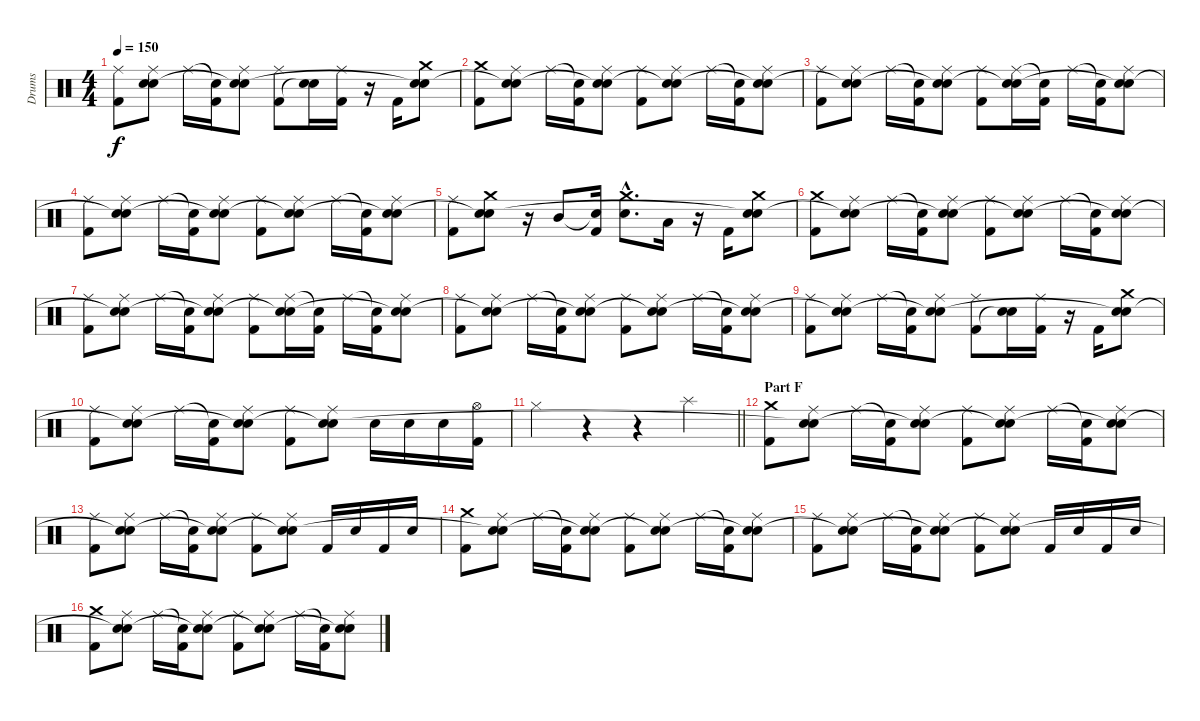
\track ("Drums" "Drums") {instrument percussion}
\staff {score}
\articulation defaults
\ts (4 4)
\tempo 150
\clef neutral
\ks c
("Ride (middle)" "Kick (hit) 2").8{dy f} ("Ride (middle)" "Electric Snare (hit)" "Snare (hit)"{t}).8 "Ride (middle)".16 ("Snare (hit)"{t} "Kick (hit) 2").16 ("Ride (middle)" "Electric Snare (hit)" "Snare (hit)"{t}).8 ("Ride (middle)" "Kick (hit) 2").8 ("Electric Snare (hit)" "Snare (hit)"{t}).16 ("Ride (middle)" "Kick (hit) 2").16 r.16 "Kick (hit) 2".16 ("Crash medium (hit)" "Electric Snare (hit)" "Snare (hit)"{t}).8 |
("Crash medium (hit)" "Kick (hit) 2").8 ("Ride (middle)" "Electric Snare (hit)" "Snare (hit)"{t}).8 "Ride (middle)".16 ("Snare (hit)"{t} "Kick (hit) 2").16 ("Ride (middle)" "Electric Snare (hit)" "Snare (hit)"{t}).8 ("Ride (middle)" "Kick (hit) 2").8 ("Ride (middle)" "Electric Snare (hit)" "Snare (hit)"{t}).8 "Ride (middle)".16 ("Snare (hit)"{t} "Kick (hit) 2").16 ("Ride (middle)" "Electric Snare (hit)" "Snare (hit)"{t}).8 |
("Ride (middle)" "Kick (hit) 2").8 ("Ride (middle)" "Electric Snare (hit)" "Snare (hit)"{t}).8 "Ride (middle)".16 ("Snare (hit)"{t} "Kick (hit) 2").16 ("Ride (middle)" "Electric Snare (hit)" "Snare (hit)"{t}).8 ("Ride (middle)" "Kick (hit) 2").8 ("Ride (middle)" "Electric Snare (hit)" "Snare (hit)"{t}).16 ("Snare (hit)"{t} "Kick (hit) 2").16 "Ride (middle)".16 ("Snare (hit)"{t} "Kick (hit) 2").16 ("Ride (middle)" "Electric Snare (hit)" "Snare (hit)"{t}).8 |
("Ride (middle)" "Kick (hit) 2").8 ("Ride (middle)" "Electric Snare (hit)" "Snare (hit)"{t}).8 "Ride (middle)".16 ("Snare (hit)"{t} "Kick (hit) 2").16 ("Ride (middle)" "Electric Snare (hit)" "Snare (hit)"{t}).8 ("Ride (middle)" "Kick (hit) 2").8 ("Ride (middle)" "Electric Snare (hit)" "Snare (hit)"{t}).8 "Ride (middle)".16 ("Snare (hit)"{t} "Kick (hit) 2").16 ("Ride (middle)" "Electric Snare (hit)" "Snare (hit)"{t}).8 |
("Ride (middle)" "Kick (hit) 2").8 ("Crash medium (hit)" "Electric Snare (hit)" "Snare (hit)"{t}).8 r.16 "Mid Tom (hit)".8 ("Snare (hit)"{t} "Kick (hit) 2").16 ("Crash medium (hit)"{hac} "Electric Snare (hit)"{hac}).8{d} "Low Tom (hit)".16 r.16 "Kick (hit) 2".16 ("Crash medium (hit)" "Electric Snare (hit)" "Snare (hit)"{t}).8 |
("Crash medium (hit)" "Kick (hit) 2").8 ("Ride (middle)" "Electric Snare (hit)" "Snare (hit)"{t}).8 "Ride (middle)".16 ("Snare (hit)"{t} "Kick (hit) 2").16 ("Ride (middle)" "Electric Snare (hit)" "Snare (hit)"{t}).8 ("Ride (middle)" "Kick (hit) 2").8 ("Ride (middle)" "Electric Snare (hit)" "Snare (hit)"{t}).8 "Ride (middle)".16 ("Snare (hit)"{t} "Kick (hit) 2").16 ("Ride (middle)" "Electric Snare (hit)" "Snare (hit)"{t}).8 |
("Ride (middle)" "Kick (hit) 2").8 ("Ride (middle)" "Electric Snare (hit)" "Snare (hit)"{t}).8 "Ride (middle)".16 ("Snare (hit)"{t} "Kick (hit) 2").16 ("Ride (middle)" "Electric Snare (hit)" "Snare (hit)"{t}).8 ("Ride (middle)" "Kick (hit) 2").8 ("Ride (middle)" "Electric Snare (hit)" "Snare (hit)"{t}).16 ("Snare (hit)"{t} "Kick (hit) 2").16 "Ride (middle)".16 ("Snare (hit)"{t} "Kick (hit) 2").16 ("Ride (middle)" "Electric Snare (hit)" "Snare (hit)"{t}).8 |
("Ride (middle)" "Kick (hit) 2").8 ("Ride (middle)" "Electric Snare (hit)" "Snare (hit)"{t}).8 "Ride (middle)".16 ("Snare (hit)"{t} "Kick (hit) 2").16 ("Ride (middle)" "Electric Snare (hit)" "Snare (hit)"{t}).8 ("Ride (middle)" "Kick (hit) 2").8 ("Ride (middle)" "Electric Snare (hit)" "Snare (hit)"{t}).8 "Ride (middle)".16 ("Snare (hit)"{t} "Kick (hit) 2").16 ("Ride (middle)" "Electric Snare (hit)" "Snare (hit)"{t}).8 |
("Ride (middle)" "Kick (hit) 2").8 ("Ride (middle)" "Electric Snare (hit)" "Snare (hit)"{t}).8 "Ride (middle)".16 ("Snare (hit)"{t} "Kick (hit) 2").16 ("Ride (middle)" "Electric Snare (hit)" "Snare (hit)"{t}).8 ("Ride (middle)" "Kick (hit) 2").8 ("Electric Snare (hit)" "Snare (hit)"{t}).16 ("Ride (middle)" "Kick (hit) 2").16 r.16 "Kick (hit) 2".16 ("Crash medium (hit)" "Electric Snare (hit)" "Snare (hit)"{t}).8 |
("Ride (middle)" "Kick (hit) 2").8 ("Ride (middle)" "Electric Snare (hit)" "Snare (hit)"{t}).8 "Ride (middle)".16 ("Snare (hit)"{t} "Kick (hit) 2").16 ("Ride (middle)" "Electric Snare (hit)" "Snare (hit)"{t}).8 ("Ride (middle)" "Kick (hit) 2").8 ("Ride (middle)" "Electric Snare (hit)" "Snare (hit)"{t}).8 "Electric Snare (hit)".16 "Electric Snare (hit)".16 "Electric Snare (hit)".16 ("Hi-Hat (open)" "Kick (hit) 2").16 |
\barLineRight lightlight "Hi-Hat (closed)".4
r.4 r.4 "Splash (hit)".4 |
\section ("" "Part F")
("Crash medium (hit)" "Kick (hit) 2").8 ("Ride (middle)" "Electric Snare (hit)" "Snare (hit)"{t}).8 "Ride (middle)".16 ("Snare (hit)"{t} "Kick (hit) 2").16 ("Ride (middle)" "Electric Snare (hit)" "Snare (hit)"{t}).8 ("Ride (middle)" "Kick (hit) 2").8 ("Ride (middle)" "Electric Snare (hit)" "Snare (hit)"{t}).8 "Ride (middle)".16 ("Snare (hit)"{t} "Kick (hit) 2").16 ("Ride (middle)" "Electric Snare (hit)" "Snare (hit)"{t}).8 |
("Ride (middle)" "Kick (hit) 2").8 ("Ride (middle)" "Electric Snare (hit)" "Snare (hit)"{t}).8 "Ride (middle)".16 ("Snare (hit)"{t} "Kick (hit) 2").16 ("Ride (middle)" "Electric Snare (hit)" "Snare (hit)"{t}).8 ("Ride (middle)" "Kick (hit) 2").8 ("Ride (middle)" "Electric Snare (hit)" "Snare (hit)"{t}).8 "Kick (hit) 2".16 "Electric Snare (hit)".16 "Kick (hit) 2".16 "Electric Snare (hit)".16 |
("Crash medium (hit)" "Kick (hit) 2").8 ("Ride (middle)" "Electric Snare (hit)" "Snare (hit)"{t}).8 "Ride (middle)".16 ("Snare (hit)"{t} "Kick (hit) 2").16 ("Ride (middle)" "Electric Snare (hit)" "Snare (hit)"{t}).8 ("Ride (middle)" "Kick (hit) 2").8 ("Ride (middle)" "Electric Snare (hit)" "Snare (hit)"{t}).8 "Ride (middle)".16 ("Snare (hit)"{t} "Kick (hit) 2").16 ("Ride (middle)" "Electric Snare (hit)" "Snare (hit)"{t}).8 |
("Ride (middle)" "Kick (hit) 2").8 ("Ride (middle)" "Electric Snare (hit)" "Snare (hit)"{t}).8 "Ride (middle)".16 ("Snare (hit)"{t} "Kick (hit) 2").16 ("Ride (middle)" "Electric Snare (hit)" "Snare (hit)"{t}).8 ("Ride (middle)" "Kick (hit) 2").8 ("Ride (middle)" "Electric Snare (hit)" "Snare (hit)"{t}).8 "Kick (hit) 2".16 "Electric Snare (hit)".16 "Kick (hit) 2".16 "Electric Snare (hit)".16 |
("Crash medium (hit)" "Kick (hit) 2").8 ("Ride (middle)" "Electric Snare (hit)" "Snare (hit)"{t}).8 "Ride (middle)".16 ("Snare (hit)"{t} "Kick (hit) 2").16 ("Ride (middle)" "Electric Snare (hit)" "Snare (hit)"{t}).8 ("Ride (middle)" "Kick (hit) 2").8 ("Ride (middle)" "Electric Snare (hit)" "Snare (hit)"{t}).8 "Ride (middle)".16 ("Snare (hit)"{t} "Kick (hit) 2").16 ("Ride (middle)" "Electric Snare (hit)" "Snare (hit)"{t}).8
